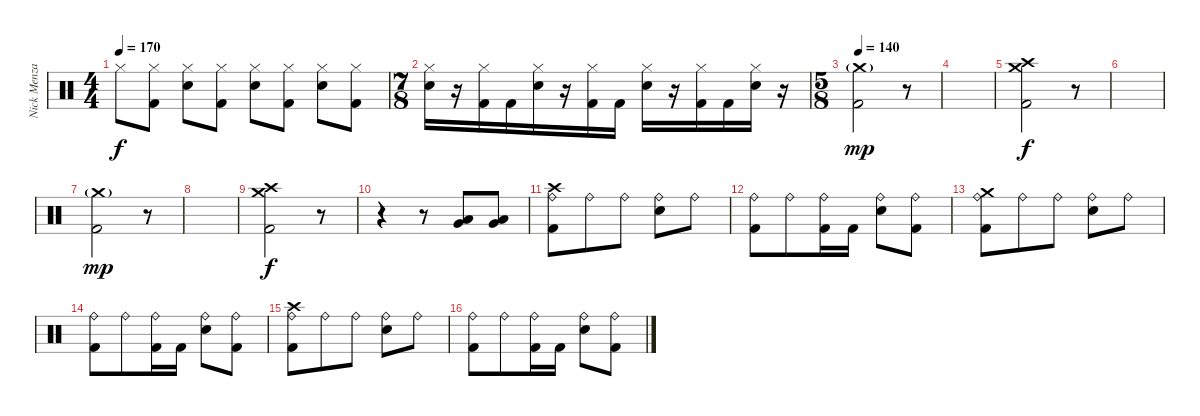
\track ("Nick Menza" "Nick Menza") {instrument percussion}
\staff {score}
\articulation defaults
\ts (4 4)
\tempo 170
\clef neutral
\ks c "Hi-Hat (closed)".8{dy f}
("Hi-Hat (closed)" "Kick (hit) 2").8 ("Hi-Hat (closed)" "Electric Snare (hit)").8 ("Hi-Hat (closed)" "Kick (hit) 2").8 ("Hi-Hat (closed)" "Electric Snare (hit)").8 ("Hi-Hat (closed)" "Kick (hit) 2").8 ("Hi-Hat (closed)" "Electric Snare (hit)").8 ("Hi-Hat (closed)" "Kick (hit) 2").8 |
\ts (7 8)
("Hi-Hat (closed)" "Electric Snare (hit)").16 r.16 ("Hi-Hat (closed)" "Kick (hit) 2").16 "Kick (hit) 2".16 ("Hi-Hat (closed)" "Electric Snare (hit)").16 r.16 ("Hi-Hat (closed)" "Kick (hit) 2").16 "Kick (hit) 2".16 ("Hi-Hat (closed)" "Electric Snare (hit)").16 r.16 ("Hi-Hat (closed)" "Kick (hit) 2").16 "Kick (hit) 2".16 ("Hi-Hat (closed)" "Electric Snare (hit)").16 r.16 |
\ts (5 8)
\tempo 140
("Crash medium (hit)"{g} "Kick (hit) 2").2{dy mp} r.8 |
|
("Crash medium (hit)" "Crash high (hit)" "Kick (hit) 2").2{dy f} r.8 |
|
("Crash medium (hit)"{g} "Kick (hit) 2").2{dy mp} r.8 |
|
("Crash medium (hit)" "Crash high (hit)" "Kick (hit) 2").2{dy f} r.8 |
r.4 r.8 ("Very Low Tom (hit)" "Low Tom (hit)").8 ("Very Low Tom (hit)" "Low Tom (hit)").8 |
("Ride (bell)" "Crash high (hit)" "Kick (hit) 2").8 "Ride (bell)".8 "Ride (bell)".8 ("Ride (bell)" "Electric Snare (hit)").8 "Ride (bell)".8 |
("Ride (bell)" "Kick (hit) 2").8 "Ride (bell)".8 ("Ride (bell)" "Kick (hit) 2").16 "Kick (hit) 2".16 ("Ride (bell)" "Electric Snare (hit)").8 ("Ride (bell)" "Kick (hit) 2").8 |
("Ride (bell)" "Crash medium (hit)" "Kick (hit) 2").8 "Ride (bell)".8 "Ride (bell)".8 ("Ride (bell)" "Electric Snare (hit)").8 "Ride (bell)".8 |
("Ride (bell)" "Kick (hit) 2").8 "Ride (bell)".8 ("Ride (bell)" "Kick (hit) 2").16 "Kick (hit) 2".16 ("Ride (bell)" "Electric Snare (hit)").8 ("Ride (bell)" "Kick (hit) 2").8 |
("Ride (bell)" "Crash high (hit)" "Kick (hit) 2").8 "Ride (bell)".8 "Ride (bell)".8 ("Ride (bell)" "Electric Snare (hit)").8 "Ride (bell)".8 |
("Ride (bell)" "Kick (hit) 2").8 "Ride (bell)".8 ("Ride (bell)" "Kick (hit) 2").16 "Kick (hit) 2".16 ("Ride (bell)" "Electric Snare (hit)").8 ("Ride (bell)" "Kick (hit) 2").8
